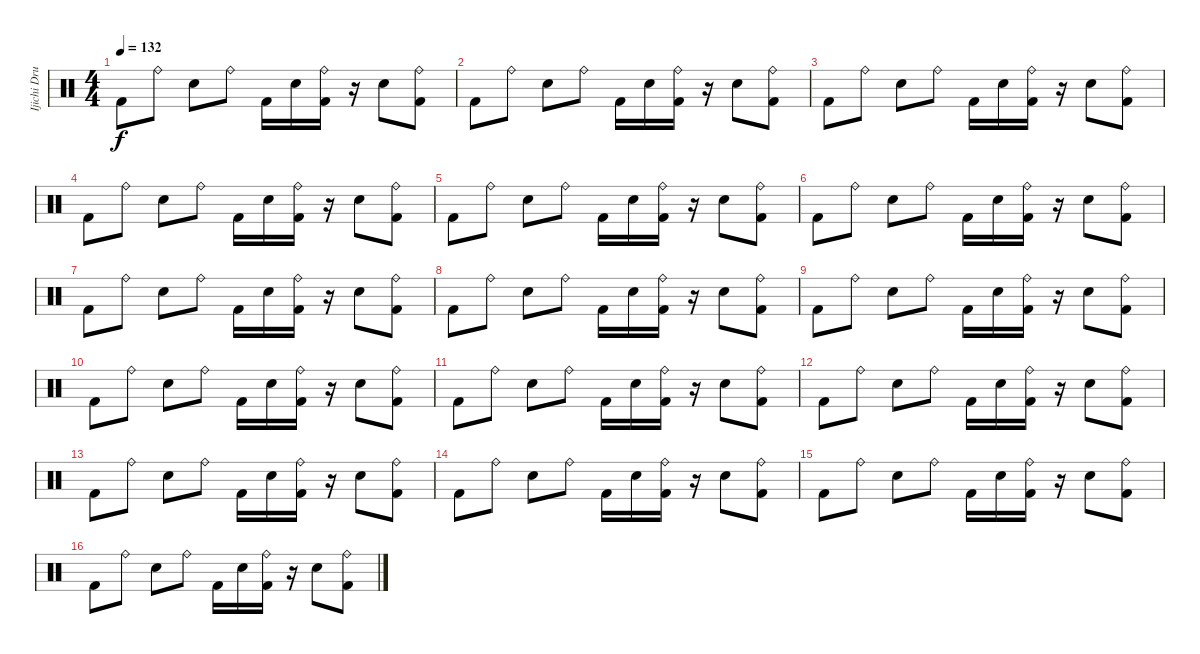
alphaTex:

\track ("Ijichi Drums" "Ijichi Dru") {instrument percussion}
\staff {score}
\articulation defaults
\ts (4 4)
\tempo 132
\clef neutral
\ks c "Kick (hit) 2".8{dy f} "Ride (bell)".8 "Snare (hit) 2".8 "Ride (bell)".8 "Kick (hit) 2".16 "Snare (hit) 2".16
("Ride (bell)" "Kick (hit) 2").16 r.16 "Snare (hit) 2".8 ("Ride (bell)" "Kick (hit) 2").8 |
"Kick (hit) 2".8 "Ride (bell)".8 "Snare (hit) 2".8 "Ride (bell)".8 "Kick (hit) 2".16 "Snare (hit) 2".16 ("Ride (bell)" "Kick (hit) 2").16 r.16 "Snare (hit) 2".8 ("Ride (bell)" "Kick (hit) 2").8 |
"Kick (hit) 2".8 "Ride (bell)".8 "Snare (hit) 2".8 "Ride (bell)".8 "Kick (hit) 2".16 "Snare (hit) 2".16 ("Ride (bell)" "Kick (hit) 2").16 r.16 "Snare (hit) 2".8 ("Ride (bell)" "Kick (hit) 2").8 |
"Kick (hit) 2".8 "Ride (bell)".8 "Snare (hit) 2".8 "Ride (bell)".8 "Kick (hit) 2".16 "Snare (hit) 2".16 ("Ride (bell)" "Kick (hit) 2").16 r.16 "Snare (hit) 2".8 ("Ride (bell)" "Kick (hit) 2").8 |
"Kick (hit) 2".8 "Ride (bell)".8 "Snare (hit) 2".8 "Ride (bell)".8 "Kick (hit) 2".16 "Snare (hit) 2".16 ("Ride (bell)" "Kick (hit) 2").16 r.16 "Snare (hit) 2".8 ("Ride (bell)" "Kick (hit) 2").8 |
"Kick (hit) 2".8 "Ride (bell)".8 "Snare (hit) 2".8 "Ride (bell)".8 "Kick (hit) 2".16 "Snare (hit) 2".16 ("Ride (bell)" "Kick (hit) 2").16 r.16 "Snare (hit) 2".8 ("Ride (bell)" "Kick (hit) 2").8 |
"Kick (hit) 2".8 "Ride (bell)".8 "Snare (hit) 2".8 "Ride (bell)".8 "Kick (hit) 2".16 "Snare (hit) 2".16 ("Ride (bell)" "Kick (hit) 2").16 r.16 "Snare (hit) 2".8 ("Ride (bell)" "Kick (hit) 2").8 |
"Kick (hit) 2".8 "Ride (bell)".8 "Snare (hit) 2".8 "Ride (bell)".8 "Kick (hit) 2".16 "Snare (hit) 2".16 ("Ride (bell)" "Kick (hit) 2").16 r.16 "Snare (hit) 2".8 ("Ride (bell)" "Kick (hit) 2").8 |
"Kick (hit) 2".8 "Ride (bell)".8 "Snare (hit) 2".8 "Ride (bell)".8 "Kick (hit) 2".16 "Snare (hit) 2".16 ("Ride (bell)" "Kick (hit) 2").16 r.16 "Snare (hit) 2".8 ("Ride (bell)" "Kick (hit) 2").8 |
"Kick (hit) 2".8 "Ride (bell)".8 "Snare (hit) 2".8 "Ride (bell)".8 "Kick (hit) 2".16 "Snare (hit) 2".16 ("Ride (bell)" "Kick (hit) 2").16 r.16 "Snare (hit) 2".8 ("Ride (bell)" "Kick (hit) 2").8 |
"Kick (hit) 2".8 "Ride (bell)".8 "Snare (hit) 2".8 "Ride (bell)".8 "Kick (hit) 2".16 "Snare (hit) 2".16 ("Ride (bell)" "Kick (hit) 2").16 r.16 "Snare (hit) 2".8 ("Ride (bell)" "Kick (hit) 2").8 |
"Kick (hit) 2".8 "Ride (bell)".8 "Snare (hit) 2".8 "Ride (bell)".8 "Kick (hit) 2".16 "Snare (hit) 2".16 ("Ride (bell)" "Kick (hit) 2").16 r.16 "Snare (hit) 2".8 ("Ride (bell)" "Kick (hit) 2").8 |
"Kick (hit) 2".8 "Ride (bell)".8 "Snare (hit) 2".8 "Ride (bell)".8 "Kick (hit) 2".16 "Snare (hit) 2".16 ("Ride (bell)" "Kick (hit) 2").16 r.16 "Snare (hit) 2".8 ("Ride (bell)" "Kick (hit) 2").8 |
"Kick (hit) 2".8 "Ride (bell)".8 "Snare (hit) 2".8 "Ride (bell)".8 "Kick (hit) 2".16 "Snare (hit) 2".16 ("Ride (bell)" "Kick (hit) 2").16 r.16 "Snare (hit) 2".8 ("Ride (bell)" "Kick (hit) 2").8 |
"Kick (hit) 2".8 "Ride (bell)".8 "Snare (hit) 2".8 "Ride (bell)".8 "Kick (hit) 2".16 "Snare (hit) 2".16 ("Ride (bell)" "Kick (hit) 2").16 r.16 "Snare (hit) 2".8 ("Ride (bell)" "Kick (hit) 2").8 |
"Kick (hit) 2".8 "Ride (bell)".8 "Snare (hit) 2".8 "Ride (bell)".8 "Kick (hit) 2".16 "Snare (hit) 2".16 ("Ride (bell)" "Kick (hit) 2").16 r.16 "Snare (hit) 2".8 ("Ride (bell)" "Kick (hit) 2").8
